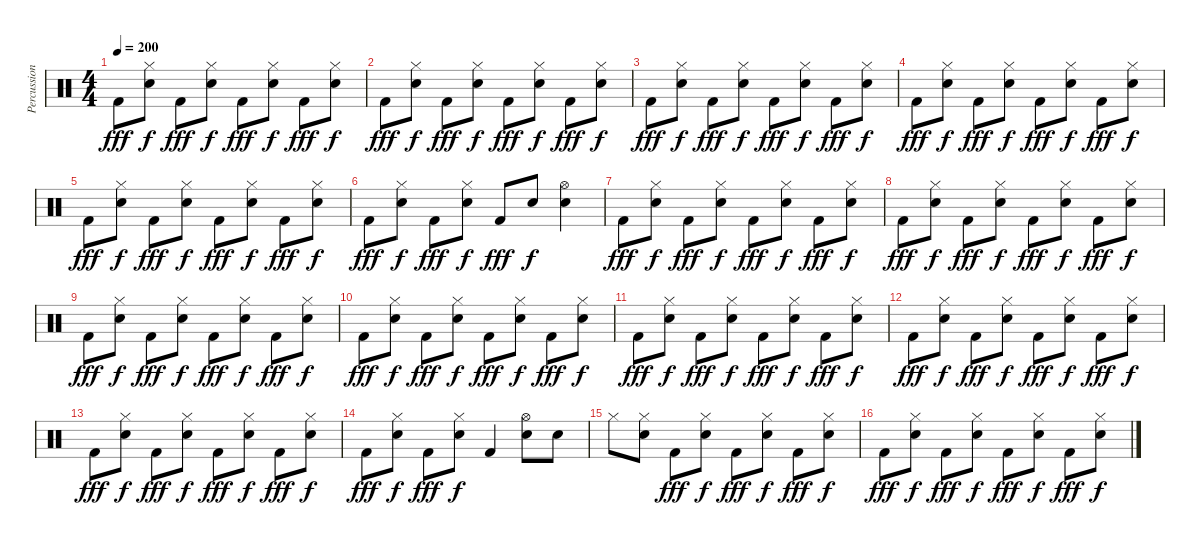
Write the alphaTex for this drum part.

\track ("Percussion" "Percussion") {instrument percussion}
\staff {score}
\articulation defaults
\ts (4 4)
\tempo 200
\clef neutral
\ks c "Kick (hit) 2".8{dy fff}
("Hi-Hat (closed)" "Electric Snare (hit)").8{dy f} "Kick (hit) 2".8{dy fff} ("Hi-Hat (closed)" "Electric Snare (hit)").8{dy f} "Kick (hit) 2".8{dy fff} ("Hi-Hat (closed)" "Electric Snare (hit)").8{dy f} "Kick (hit) 2".8{dy fff} ("Hi-Hat (closed)" "Electric Snare (hit)").8{dy f} |
"Kick (hit) 2".8{dy fff} ("Hi-Hat (closed)" "Electric Snare (hit)").8{dy f} "Kick (hit) 2".8{dy fff} ("Hi-Hat (closed)" "Electric Snare (hit)").8{dy f} "Kick (hit) 2".8{dy fff} ("Hi-Hat (closed)" "Electric Snare (hit)").8{dy f} "Kick (hit) 2".8{dy fff} ("Hi-Hat (closed)" "Electric Snare (hit)").8{dy f} |
"Kick (hit) 2".8{dy fff} ("Hi-Hat (closed)" "Electric Snare (hit)").8{dy f} "Kick (hit) 2".8{dy fff} ("Hi-Hat (closed)" "Electric Snare (hit)").8{dy f} "Kick (hit) 2".8{dy fff} ("Hi-Hat (closed)" "Electric Snare (hit)").8{dy f} "Kick (hit) 2".8{dy fff} ("Hi-Hat (closed)" "Electric Snare (hit)").8{dy f} |
"Kick (hit) 2".8{dy fff} ("Hi-Hat (closed)" "Electric Snare (hit)").8{dy f} "Kick (hit) 2".8{dy fff} ("Hi-Hat (closed)" "Electric Snare (hit)").8{dy f} "Kick (hit) 2".8{dy fff} ("Hi-Hat (closed)" "Electric Snare (hit)").8{dy f} "Kick (hit) 2".8{dy fff} ("Hi-Hat (closed)" "Electric Snare (hit)").8{dy f} |
"Kick (hit) 2".8{dy fff} ("Hi-Hat (closed)" "Electric Snare (hit)").8{dy f} "Kick (hit) 2".8{dy fff} ("Hi-Hat (closed)" "Electric Snare (hit)").8{dy f} "Kick (hit) 2".8{dy fff} ("Hi-Hat (closed)" "Electric Snare (hit)").8{dy f} "Kick (hit) 2".8{dy fff} ("Hi-Hat (closed)" "Electric Snare (hit)").8{dy f} |
"Kick (hit) 2".8{dy fff} ("Hi-Hat (closed)" "Electric Snare (hit)").8{dy f} "Kick (hit) 2".8{dy fff} ("Hi-Hat (closed)" "Electric Snare (hit)").8{dy f} "Kick (hit) 2".8{dy fff} "Electric Snare (hit)".8{dy f} ("Hi-Hat (open)" "Electric Snare (hit)").4 |
"Kick (hit) 2".8{dy fff} ("Hi-Hat (closed)" "Electric Snare (hit)").8{dy f} "Kick (hit) 2".8{dy fff} ("Hi-Hat (closed)" "Electric Snare (hit)").8{dy f} "Kick (hit) 2".8{dy fff} ("Hi-Hat (closed)" "Electric Snare (hit)").8{dy f} "Kick (hit) 2".8{dy fff} ("Hi-Hat (closed)" "Electric Snare (hit)").8{dy f} |
"Kick (hit) 2".8{dy fff} ("Hi-Hat (closed)" "Electric Snare (hit)").8{dy f} "Kick (hit) 2".8{dy fff} ("Hi-Hat (closed)" "Electric Snare (hit)").8{dy f} "Kick (hit) 2".8{dy fff} ("Hi-Hat (closed)" "Electric Snare (hit)").8{dy f} "Kick (hit) 2".8{dy fff} ("Hi-Hat (closed)" "Electric Snare (hit)").8{dy f} |
"Kick (hit) 2".8{dy fff} ("Hi-Hat (closed)" "Electric Snare (hit)").8{dy f} "Kick (hit) 2".8{dy fff} ("Hi-Hat (closed)" "Electric Snare (hit)").8{dy f} "Kick (hit) 2".8{dy fff} ("Hi-Hat (closed)" "Electric Snare (hit)").8{dy f} "Kick (hit) 2".8{dy fff} ("Hi-Hat (closed)" "Electric Snare (hit)").8{dy f} |
"Kick (hit) 2".8{dy fff} ("Hi-Hat (closed)" "Electric Snare (hit)").8{dy f} "Kick (hit) 2".8{dy fff} ("Hi-Hat (closed)" "Electric Snare (hit)").8{dy f} "Kick (hit) 2".8{dy fff} ("Hi-Hat (closed)" "Electric Snare (hit)").8{dy f} "Kick (hit) 2".8{dy fff} ("Hi-Hat (closed)" "Electric Snare (hit)").8{dy f} |
"Kick (hit) 2".8{dy fff} ("Hi-Hat (closed)" "Electric Snare (hit)").8{dy f} "Kick (hit) 2".8{dy fff} ("Hi-Hat (closed)" "Electric Snare (hit)").8{dy f} "Kick (hit) 2".8{dy fff} ("Hi-Hat (closed)" "Electric Snare (hit)").8{dy f} "Kick (hit) 2".8{dy fff} ("Hi-Hat (closed)" "Electric Snare (hit)").8{dy f} |
"Kick (hit) 2".8{dy fff} ("Hi-Hat (closed)" "Electric Snare (hit)").8{dy f} "Kick (hit) 2".8{dy fff} ("Hi-Hat (closed)" "Electric Snare (hit)").8{dy f} "Kick (hit) 2".8{dy fff} ("Hi-Hat (closed)" "Electric Snare (hit)").8{dy f} "Kick (hit) 2".8{dy fff} ("Hi-Hat (closed)" "Electric Snare (hit)").8{dy f} |
"Kick (hit) 2".8{dy fff} ("Hi-Hat (closed)" "Electric Snare (hit)").8{dy f} "Kick (hit) 2".8{dy fff} ("Hi-Hat (closed)" "Electric Snare (hit)").8{dy f} "Kick (hit) 2".8{dy fff} ("Hi-Hat (closed)" "Electric Snare (hit)").8{dy f} "Kick (hit) 2".8{dy fff} ("Hi-Hat (closed)" "Electric Snare (hit)").8{dy f} |
"Kick (hit) 2".8{dy fff} ("Hi-Hat (closed)" "Electric Snare (hit)").8{dy f} "Kick (hit) 2".8{dy fff} ("Hi-Hat (closed)" "Electric Snare (hit)").8{dy f} "Kick (hit) 2".4 ("Hi-Hat (open)" "Electric Snare (hit)").8 "Electric Snare (hit)".8 |
"Hi-Hat (closed)".8 ("Hi-Hat (closed)" "Electric Snare (hit)").8 "Kick (hit) 2".8{dy fff} ("Hi-Hat (closed)" "Electric Snare (hit)").8{dy f} "Kick (hit) 2".8{dy fff} ("Hi-Hat (closed)" "Electric Snare (hit)").8{dy f} "Kick (hit) 2".8{dy fff} ("Hi-Hat (closed)" "Electric Snare (hit)").8{dy f} |
"Kick (hit) 2".8{dy fff} ("Hi-Hat (closed)" "Electric Snare (hit)").8{dy f} "Kick (hit) 2".8{dy fff} ("Hi-Hat (closed)" "Electric Snare (hit)").8{dy f} "Kick (hit) 2".8{dy fff} ("Hi-Hat (closed)" "Electric Snare (hit)").8{dy f} "Kick (hit) 2".8{dy fff} ("Hi-Hat (closed)" "Electric Snare (hit)").8{dy f}
